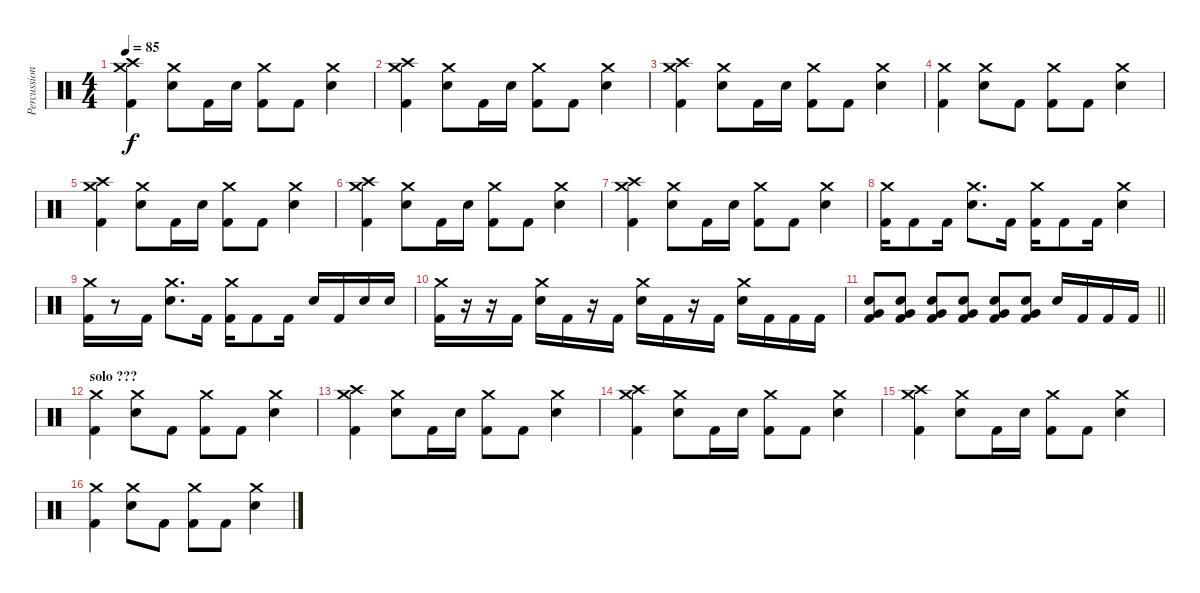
\track ("Percussions" "Percussion") {instrument percussion}
\staff {score}
\articulation defaults
\ts (4 4)
\tempo 85
\clef neutral
\ks c
("Crash high (hit)" "Kick (hit) 2" "Crash medium (hit)").4{dy f} ("Electric Snare (hit)" "Crash medium (hit)").8 "Kick (hit) 2".16 "Electric Snare (hit)".16 ("Kick (hit) 2" "Crash medium (hit)").8 "Kick (hit) 2".8 ("Electric Snare (hit)" "Crash medium (hit)").4 |
("Crash high (hit)" "Kick (hit) 2" "Crash medium (hit)").4 ("Electric Snare (hit)" "Crash medium (hit)").8 "Kick (hit) 2".16 "Electric Snare (hit)".16 ("Kick (hit) 2" "Crash medium (hit)").8 "Kick (hit) 2".8 ("Electric Snare (hit)" "Crash medium (hit)").4 |
("Crash high (hit)" "Kick (hit) 2" "Crash medium (hit)").4 ("Electric Snare (hit)" "Crash medium (hit)").8 "Kick (hit) 2".16 "Electric Snare (hit)".16 ("Kick (hit) 2" "Crash medium (hit)").8 "Kick (hit) 2".8 ("Electric Snare (hit)" "Crash medium (hit)").4 |
("Kick (hit) 2" "Crash medium (hit)").4 ("Electric Snare (hit)" "Crash medium (hit)").8 "Kick (hit) 2".8 ("Kick (hit) 2" "Crash medium (hit)").8 "Kick (hit) 2".8 ("Electric Snare (hit)" "Crash medium (hit)").4 |
("Crash high (hit)" "Kick (hit) 2" "Crash medium (hit)").4 ("Electric Snare (hit)" "Crash medium (hit)").8 "Kick (hit) 2".16 "Electric Snare (hit)".16 ("Kick (hit) 2" "Crash medium (hit)").8 "Kick (hit) 2".8 ("Electric Snare (hit)" "Crash medium (hit)").4 |
("Crash high (hit)" "Kick (hit) 2" "Crash medium (hit)").4 ("Electric Snare (hit)" "Crash medium (hit)").8 "Kick (hit) 2".16 "Electric Snare (hit)".16 ("Kick (hit) 2" "Crash medium (hit)").8 "Kick (hit) 2".8 ("Electric Snare (hit)" "Crash medium (hit)").4 |
("Crash high (hit)" "Kick (hit) 2" "Crash medium (hit)").4 ("Electric Snare (hit)" "Crash medium (hit)").8 "Kick (hit) 2".16 "Electric Snare (hit)".16 ("Kick (hit) 2" "Crash medium (hit)").8 "Kick (hit) 2".8 ("Electric Snare (hit)" "Crash medium (hit)").4 |
("Kick (hit) 2" "Crash medium (hit)").16 "Kick (hit) 2".8 "Kick (hit) 2".16 ("Electric Snare (hit)" "Crash medium (hit)").8{d} "Kick (hit) 2".16 ("Kick (hit) 2" "Crash medium (hit)").16 "Kick (hit) 2".8 "Kick (hit) 2".16 ("Electric Snare (hit)" "Crash medium (hit)").4 |
("Kick (hit) 2" "Crash medium (hit)").16 r.8 "Kick (hit) 2".16 ("Electric Snare (hit)" "Crash medium (hit)").8{d} "Kick (hit) 2".16 ("Kick (hit) 2" "Crash medium (hit)").16 "Kick (hit) 2".8 "Kick (hit) 2".16 "Electric Snare (hit)".16 "Kick (hit) 2".16 "Electric Snare (hit)".16 "Electric Snare (hit)".16 |
("Kick (hit) 2" "Crash medium (hit)").16 r.16 r.16 "Kick (hit) 2".16 ("Electric Snare (hit)" "Crash medium (hit)").16 "Kick (hit) 2".16 r.16 "Kick (hit) 2".16 ("Electric Snare (hit)" "Crash medium (hit)").16 "Kick (hit) 2".16 r.16 "Kick (hit) 2".16 ("Electric Snare (hit)" "Crash medium (hit)").16 "Kick (hit) 2".16 "Kick (hit) 2".16 "Kick (hit) 2".16 |
\barLineRight lightlight
("Electric Snare (hit)" "Kick (hit) 2" "Very Low Tom (hit)").8 ("Electric Snare (hit)" "Kick (hit) 2" "Very Low Tom (hit)").8 ("Electric Snare (hit)" "Kick (hit) 2" "Very Low Tom (hit)").8 ("Electric Snare (hit)" "Kick (hit) 2" "Very Low Tom (hit)").8 ("Electric Snare (hit)" "Kick (hit) 2" "Very Low Tom (hit)").8 ("Electric Snare (hit)" "Kick (hit) 2" "Very Low Tom (hit)").8 "Electric Snare (hit)".16 "Kick (hit) 2".16 "Kick (hit) 2".16 "Kick (hit) 2".16 |
\section ("" "solo ???")
("Kick (hit) 2" "Crash medium (hit)").4 ("Electric Snare (hit)" "Crash medium (hit)").8 "Kick (hit) 2".8 ("Kick (hit) 2" "Crash medium (hit)").8 "Kick (hit) 2".8 ("Electric Snare (hit)" "Crash medium (hit)").4 |
("Crash high (hit)" "Kick (hit) 2" "Crash medium (hit)").4 ("Electric Snare (hit)" "Crash medium (hit)").8 "Kick (hit) 2".16 "Electric Snare (hit)".16 ("Kick (hit) 2" "Crash medium (hit)").8 "Kick (hit) 2".8 ("Electric Snare (hit)" "Crash medium (hit)").4 |
("Crash high (hit)" "Kick (hit) 2" "Crash medium (hit)").4 ("Electric Snare (hit)" "Crash medium (hit)").8 "Kick (hit) 2".16 "Electric Snare (hit)".16 ("Kick (hit) 2" "Crash medium (hit)").8 "Kick (hit) 2".8 ("Electric Snare (hit)" "Crash medium (hit)").4 |
("Crash high (hit)" "Kick (hit) 2" "Crash medium (hit)").4 ("Electric Snare (hit)" "Crash medium (hit)").8 "Kick (hit) 2".16 "Electric Snare (hit)".16 ("Kick (hit) 2" "Crash medium (hit)").8 "Kick (hit) 2".8 ("Electric Snare (hit)" "Crash medium (hit)").4 |
("Kick (hit) 2" "Crash medium (hit)").4 ("Electric Snare (hit)" "Crash medium (hit)").8 "Kick (hit) 2".8 ("Kick (hit) 2" "Crash medium (hit)").8 "Kick (hit) 2".8 ("Electric Snare (hit)" "Crash medium (hit)").4
